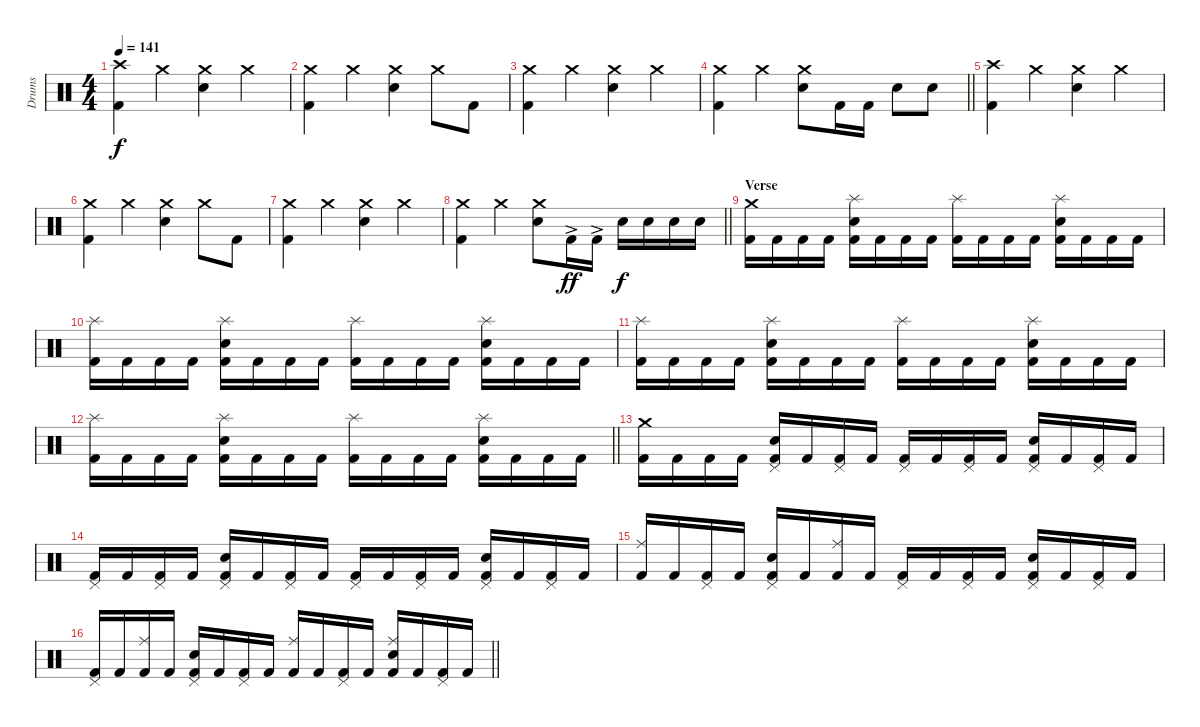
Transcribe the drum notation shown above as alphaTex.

\track ("Drums" "Drums") {instrument percussion}
\staff {score}
\articulation defaults
\ts (4 4)
\section ("" "")
\tempo 141
\clef neutral
\ks c
("Kick (hit) 2" "Crash high (hit)").4{dy f} "Crash medium (hit)".4 ("Snare (hit) 2" "Crash medium (hit)").4 "Crash medium (hit)".4 |
("Kick (hit) 2" "Crash medium (hit)").4 "Crash medium (hit)".4 ("Snare (hit) 2" "Crash medium (hit)").4 "Crash medium (hit)".8 "Kick (hit) 2".8 |
("Kick (hit) 2" "Crash medium (hit)").4 "Crash medium (hit)".4 ("Snare (hit) 2" "Crash medium (hit)").4 "Crash medium (hit)".4 |
\barLineRight lightlight
("Kick (hit) 2" "Crash medium (hit)").4 "Crash medium (hit)".4 ("Snare (hit) 2" "Crash medium (hit)").8 "Kick (hit) 2".16 "Kick (hit) 2".16 "Snare (hit) 2".8 "Snare (hit) 2".8 |
\section ("" "")
("Kick (hit) 2" "Crash high (hit)").4 "Crash medium (hit)".4 ("Snare (hit) 2" "Crash medium (hit)").4 "Crash medium (hit)".4 |
("Kick (hit) 2" "Crash medium (hit)").4 "Crash medium (hit)".4 ("Snare (hit) 2" "Crash medium (hit)").4 "Crash medium (hit)".8 "Kick (hit) 2".8 |
("Kick (hit) 2" "Crash medium (hit)").4 "Crash medium (hit)".4 ("Snare (hit) 2" "Crash medium (hit)").4 "Crash medium (hit)".4 |
\barLineRight lightlight
("Kick (hit) 2" "Crash medium (hit)").4 "Crash medium (hit)".4 ("Snare (hit) 2" "Crash medium (hit)").8 "Kick (hit) 2"{ac}.16{dy ff} "Kick (hit) 2"{ac}.16 "Snare (hit) 2".16{dy f} "Snare (hit) 2".16 "Snare (hit) 2".16 "Snare (hit) 2".16 |
\section ("" "Verse")
("Kick (hit) 2" "Crash medium (hit)").16 "Kick (hit) 2".16 "Kick (hit) 2".16 "Kick (hit) 2".16 ("Kick (hit) 2" "Snare (hit) 2" "Splash (hit)").16 "Kick (hit) 2".16 "Kick (hit) 2".16 "Kick (hit) 2".16 ("Kick (hit) 2" "Splash (hit)").16 "Kick (hit) 2".16 "Kick (hit) 2".16 "Kick (hit) 2".16 ("Kick (hit) 2" "Snare (hit) 2" "Splash (hit)").16 "Kick (hit) 2".16 "Kick (hit) 2".16 "Kick (hit) 2".16 |
("Kick (hit) 2" "Splash (hit)").16 "Kick (hit) 2".16 "Kick (hit) 2".16 "Kick (hit) 2".16 ("Kick (hit) 2" "Snare (hit) 2" "Splash (hit)").16 "Kick (hit) 2".16 "Kick (hit) 2".16 "Kick (hit) 2".16 ("Kick (hit) 2" "Splash (hit)").16 "Kick (hit) 2".16 "Kick (hit) 2".16 "Kick (hit) 2".16 ("Kick (hit) 2" "Snare (hit) 2" "Splash (hit)").16 "Kick (hit) 2".16 "Kick (hit) 2".16 "Kick (hit) 2".16 |
("Kick (hit) 2" "Splash (hit)").16 "Kick (hit) 2".16 "Kick (hit) 2".16 "Kick (hit) 2".16 ("Kick (hit) 2" "Snare (hit) 2" "Splash (hit)").16 "Kick (hit) 2".16 "Kick (hit) 2".16 "Kick (hit) 2".16 ("Kick (hit) 2" "Splash (hit)").16 "Kick (hit) 2".16 "Kick (hit) 2".16 "Kick (hit) 2".16 ("Kick (hit) 2" "Snare (hit) 2" "Splash (hit)").16 "Kick (hit) 2".16 "Kick (hit) 2".16 "Kick (hit) 2".16 |
\barLineRight lightlight
("Kick (hit) 2" "Splash (hit)").16 "Kick (hit) 2".16 "Kick (hit) 2".16 "Kick (hit) 2".16 ("Kick (hit) 2" "Snare (hit) 2" "Splash (hit)").16 "Kick (hit) 2".16 "Kick (hit) 2".16 "Kick (hit) 2".16 ("Kick (hit) 2" "Splash (hit)").16 "Kick (hit) 2".16 "Kick (hit) 2".16 "Kick (hit) 2".16 ("Kick (hit) 2" "Snare (hit) 2" "Splash (hit)").16 "Kick (hit) 2".16 "Kick (hit) 2".16 "Kick (hit) 2".16 |
\section ("" "")
("Kick (hit) 2" "Crash medium (hit)").16 "Kick (hit) 2".16 "Kick (hit) 2".16 "Kick (hit) 2".16 ("Kick (hit) 2" "Snare (hit) 2" "Pedal Hi-Hat (hit)").16 "Kick (hit) 2".16 ("Kick (hit) 2" "Pedal Hi-Hat (hit)").16 "Kick (hit) 2".16 ("Kick (hit) 2" "Pedal Hi-Hat (hit)").16 "Kick (hit) 2".16 ("Kick (hit) 2" "Pedal Hi-Hat (hit)").16 "Kick (hit) 2".16 ("Kick (hit) 2" "Snare (hit) 2" "Pedal Hi-Hat (hit)").16 "Kick (hit) 2".16 ("Kick (hit) 2" "Pedal Hi-Hat (hit)").16 "Kick (hit) 2".16 |
("Kick (hit) 2" "Pedal Hi-Hat (hit)").16 "Kick (hit) 2".16 ("Kick (hit) 2" "Pedal Hi-Hat (hit)").16 "Kick (hit) 2".16 ("Kick (hit) 2" "Snare (hit) 2" "Pedal Hi-Hat (hit)").16 "Kick (hit) 2".16 ("Kick (hit) 2" "Pedal Hi-Hat (hit)").16 "Kick (hit) 2".16 ("Kick (hit) 2" "Pedal Hi-Hat (hit)").16 "Kick (hit) 2".16 ("Kick (hit) 2" "Pedal Hi-Hat (hit)").16 "Kick (hit) 2".16 ("Kick (hit) 2" "Snare (hit) 2" "Pedal Hi-Hat (hit)").16 "Kick (hit) 2".16 ("Kick (hit) 2" "Pedal Hi-Hat (hit)").16 "Kick (hit) 2".16 |
("Kick (hit) 2" "Ride (middle)").16 "Kick (hit) 2".16 ("Kick (hit) 2" "Pedal Hi-Hat (hit)").16 "Kick (hit) 2".16 ("Kick (hit) 2" "Snare (hit) 2" "Pedal Hi-Hat (hit)").16 "Kick (hit) 2".16 ("Kick (hit) 2" "Ride (middle)").16 "Kick (hit) 2".16 ("Kick (hit) 2" "Pedal Hi-Hat (hit)").16 "Kick (hit) 2".16 ("Kick (hit) 2" "Pedal Hi-Hat (hit)").16 "Kick (hit) 2".16 ("Kick (hit) 2" "Snare (hit) 2" "Pedal Hi-Hat (hit)").16 "Kick (hit) 2".16 ("Kick (hit) 2" "Pedal Hi-Hat (hit)").16 "Kick (hit) 2".16 |
\barLineRight lightlight
("Kick (hit) 2" "Pedal Hi-Hat (hit)").16 "Kick (hit) 2".16 ("Kick (hit) 2" "Ride (middle)").16 "Kick (hit) 2".16 ("Kick (hit) 2" "Snare (hit) 2" "Pedal Hi-Hat (hit)").16 "Kick (hit) 2".16 ("Kick (hit) 2" "Pedal Hi-Hat (hit)").16 "Kick (hit) 2".16 ("Kick (hit) 2" "Ride (middle)").16 "Kick (hit) 2".16 ("Kick (hit) 2" "Pedal Hi-Hat (hit)").16 "Kick (hit) 2".16 ("Kick (hit) 2" "Snare (hit) 2" "Ride (middle)").16 "Kick (hit) 2".16 ("Kick (hit) 2" "Pedal Hi-Hat (hit)").16 "Kick (hit) 2".16
